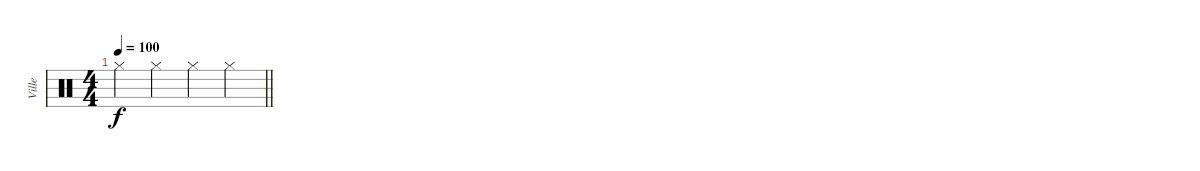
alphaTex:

\track ("Ville" "Ville") {instrument percussion}
\staff {score}
\articulation defaults
\ts (4 4)
\tempo 100
\clef neutral
\barLineRight lightlight
\ks c "Hi-Hat (closed)".4{dy f} "Hi-Hat (closed)".4 "Hi-Hat (closed)".4 "Hi-Hat (closed)".4
